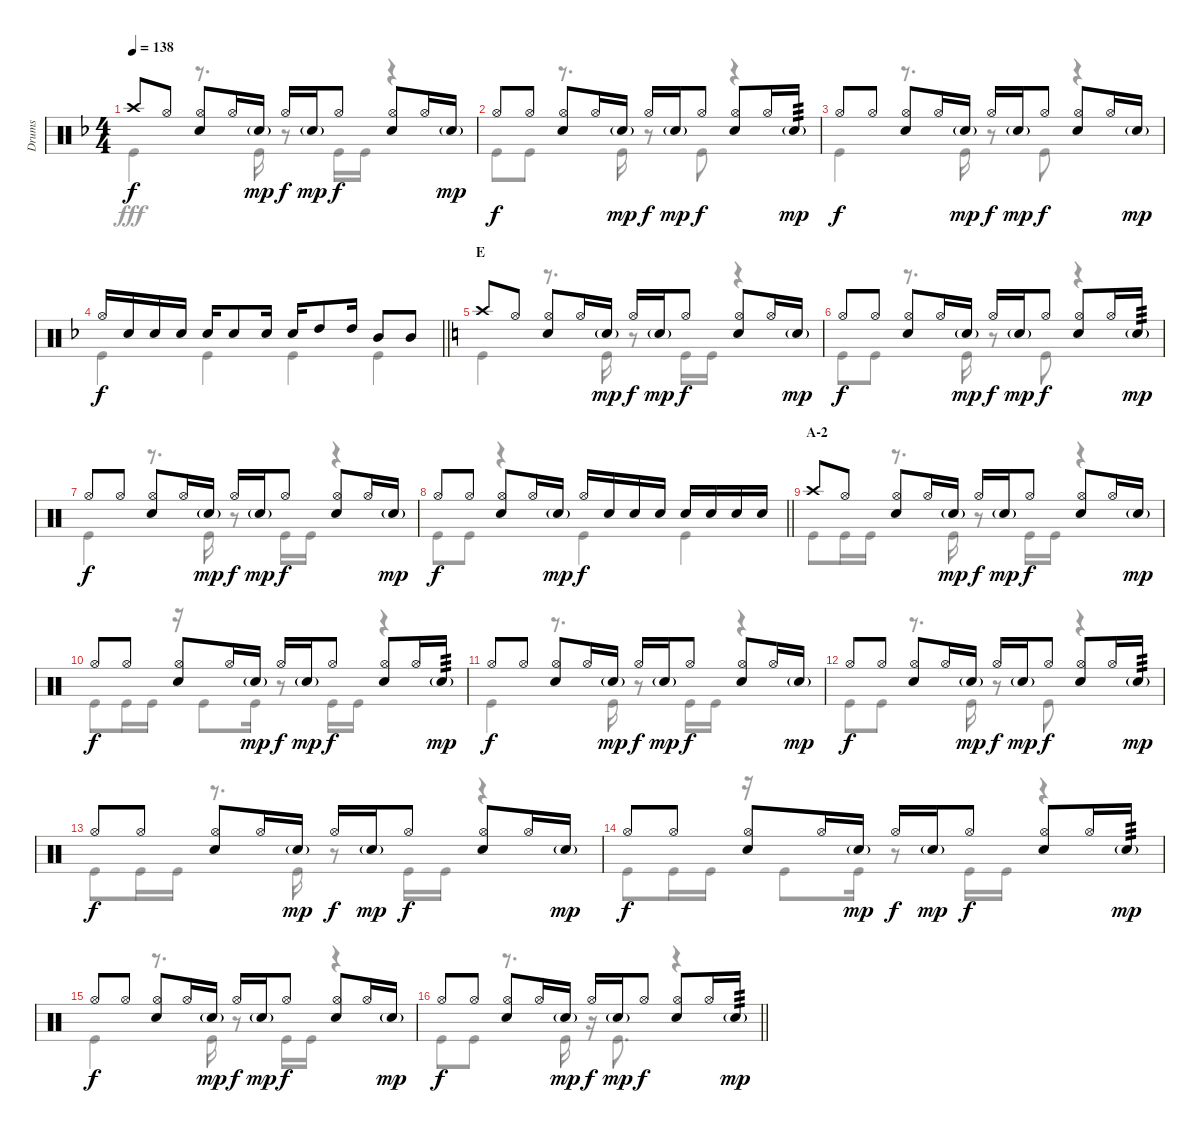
\track ("Drums" "Drums") {instrument percussion}
\staff {score}
\articulation defaults
\voice
\ts (4 4)
\tempo 138
\clef neutral
\ks f "Crash high (hit)".8{dy f} "Hi-Hat (open)".8
("Hi-Hat (open)" "Snare (hit) 2").8 "Hi-Hat (open)".16 "Snare (hit) 2"{g}.16{dy mp} "Hi-Hat (open)".16{dy f} "Snare (hit) 2"{g}.16{dy mp} "Hi-Hat (open)".8{dy f} ("Hi-Hat (open)" "Snare (hit) 2").8 "Hi-Hat (open)".16 "Snare (hit) 2"{g}.16{dy mp} |
"Hi-Hat (open)".8{dy f} "Hi-Hat (open)".8 ("Hi-Hat (open)" "Snare (hit) 2").8 "Hi-Hat (open)".16 "Snare (hit) 2"{g}.16{dy mp} "Hi-Hat (open)".16{dy f} "Snare (hit) 2"{g}.16{dy mp} "Hi-Hat (open)".8{dy f} ("Hi-Hat (open)" "Snare (hit) 2").8 "Hi-Hat (open)".16 "Snare (hit) 2"{g}.16{tp 3 dy mp} |
"Hi-Hat (open)".8{dy f} "Hi-Hat (open)".8 ("Hi-Hat (open)" "Snare (hit) 2").8 "Hi-Hat (open)".16 "Snare (hit) 2"{g}.16{dy mp} "Hi-Hat (open)".16{dy f} "Snare (hit) 2"{g}.16{dy mp} "Hi-Hat (open)".8{dy f} ("Hi-Hat (open)" "Snare (hit) 2").8 "Hi-Hat (open)".16 "Snare (hit) 2"{g}.16{dy mp} |
\barLineRight lightlight "Hi-Hat (open)".16{dy f} "Snare (hit) 2".16 "Snare (hit) 2".16 "Snare (hit) 2".16 "Snare (hit) 2".16 "Snare (hit) 2".8 "Snare (hit) 2".16 "Snare (hit) 2".16 "High Tom (hit)".8 "High Tom (hit)".16 "Mid Tom (hit)".8 "Mid Tom (hit)".8
|
\section ("" "E")
\ks c "Crash high (hit)".8 "Hi-Hat (open)".8
("Hi-Hat (open)" "Snare (hit) 2").8 "Hi-Hat (open)".16 "Snare (hit) 2"{g}.16{dy mp} "Hi-Hat (open)".16{dy f} "Snare (hit) 2"{g}.16{dy mp} "Hi-Hat (open)".8{dy f} ("Hi-Hat (open)" "Snare (hit) 2").8 "Hi-Hat (open)".16 "Snare (hit) 2"{g}.16{dy mp} |
"Hi-Hat (open)".8{dy f} "Hi-Hat (open)".8 ("Hi-Hat (open)" "Snare (hit) 2").8 "Hi-Hat (open)".16 "Snare (hit) 2"{g}.16{dy mp} "Hi-Hat (open)".16{dy f} "Snare (hit) 2"{g}.16{dy mp} "Hi-Hat (open)".8{dy f} ("Hi-Hat (open)" "Snare (hit) 2").8 "Hi-Hat (open)".16 "Snare (hit) 2"{g}.16{tp 3 dy mp} |
"Hi-Hat (open)".8{dy f} "Hi-Hat (open)".8 ("Hi-Hat (open)" "Snare (hit) 2").8 "Hi-Hat (open)".16 "Snare (hit) 2"{g}.16{dy mp} "Hi-Hat (open)".16{dy f} "Snare (hit) 2"{g}.16{dy mp} "Hi-Hat (open)".8{dy f} ("Hi-Hat (open)" "Snare (hit) 2").8 "Hi-Hat (open)".16 "Snare (hit) 2"{g}.16{dy mp} |
\barLineRight lightlight "Hi-Hat (open)".8{dy f} "Hi-Hat (open)".8
("Hi-Hat (open)" "Snare (hit) 2").8 "Hi-Hat (open)".16 "Snare (hit) 2"{g}.16{dy mp} "Hi-Hat (open)".16{dy f} "Snare (hit) 2".16 "Snare (hit) 2".16 "Snare (hit) 2".16 "Snare (hit) 2".16 "Snare (hit) 2".16 "Snare (hit) 2".16 "Snare (hit) 2".16 |
\section ("" "A-2")
"Crash high (hit)".8 "Hi-Hat (open)".8 ("Hi-Hat (open)" "Snare (hit) 2").8 "Hi-Hat (open)".16 "Snare (hit) 2"{g}.16{dy mp} "Hi-Hat (open)".16{dy f} "Snare (hit) 2"{g}.16{dy mp} "Hi-Hat (open)".8{dy f} ("Hi-Hat (open)" "Snare (hit) 2").8 "Hi-Hat (open)".16 "Snare (hit) 2"{g}.16{dy mp} |
"Hi-Hat (open)".8{dy f} "Hi-Hat (open)".8 ("Hi-Hat (open)" "Snare (hit) 2").8 "Hi-Hat (open)".16 "Snare (hit) 2"{g}.16{dy mp} "Hi-Hat (open)".16{dy f} "Snare (hit) 2"{g}.16{dy mp} "Hi-Hat (open)".8{dy f} ("Hi-Hat (open)" "Snare (hit) 2").8 "Hi-Hat (open)".16 "Snare (hit) 2"{g}.16{tp 3 dy mp} |
"Hi-Hat (open)".8{dy f} "Hi-Hat (open)".8 ("Hi-Hat (open)" "Snare (hit) 2").8 "Hi-Hat (open)".16 "Snare (hit) 2"{g}.16{dy mp} "Hi-Hat (open)".16{dy f} "Snare (hit) 2"{g}.16{dy mp} "Hi-Hat (open)".8{dy f} ("Hi-Hat (open)" "Snare (hit) 2").8 "Hi-Hat (open)".16 "Snare (hit) 2"{g}.16{dy mp} |
"Hi-Hat (open)".8{dy f} "Hi-Hat (open)".8 ("Hi-Hat (open)" "Snare (hit) 2").8 "Hi-Hat (open)".16 "Snare (hit) 2"{g}.16{dy mp} "Hi-Hat (open)".16{dy f} "Snare (hit) 2"{g}.16{dy mp} "Hi-Hat (open)".8{dy f} ("Hi-Hat (open)" "Snare (hit) 2").8 "Hi-Hat (open)".16 "Snare (hit) 2"{g}.16{tp 3 dy mp} |
"Hi-Hat (open)".8{dy f} "Hi-Hat (open)".8 ("Hi-Hat (open)" "Snare (hit) 2").8 "Hi-Hat (open)".16 "Snare (hit) 2"{g}.16{dy mp} "Hi-Hat (open)".16{dy f} "Snare (hit) 2"{g}.16{dy mp} "Hi-Hat (open)".8{dy f} ("Hi-Hat (open)" "Snare (hit) 2").8 "Hi-Hat (open)".16 "Snare (hit) 2"{g}.16{dy mp} |
"Hi-Hat (open)".8{dy f} "Hi-Hat (open)".8 ("Hi-Hat (open)" "Snare (hit) 2").8 "Hi-Hat (open)".16 "Snare (hit) 2"{g}.16{dy mp} "Hi-Hat (open)".16{dy f} "Snare (hit) 2"{g}.16{dy mp} "Hi-Hat (open)".8{dy f} ("Hi-Hat (open)" "Snare (hit) 2").8 "Hi-Hat (open)".16 "Snare (hit) 2"{g}.16{tp 3 dy mp} |
"Hi-Hat (open)".8{dy f} "Hi-Hat (open)".8 ("Hi-Hat (open)" "Snare (hit) 2").8 "Hi-Hat (open)".16 "Snare (hit) 2"{g}.16{dy mp} "Hi-Hat (open)".16{dy f} "Snare (hit) 2"{g}.16{dy mp} "Hi-Hat (open)".8{dy f} ("Hi-Hat (open)" "Snare (hit) 2").8 "Hi-Hat (open)".16 "Snare (hit) 2"{g}.16{dy mp} |
\barLineRight lightlight "Hi-Hat (open)".8{dy f} "Hi-Hat (open)".8
("Hi-Hat (open)" "Snare (hit) 2").8 "Hi-Hat (open)".16 "Snare (hit) 2"{g}.16{dy mp} "Hi-Hat (open)".16{dy f} "Snare (hit) 2"{g}.16{dy mp} "Hi-Hat (open)".8{dy f} ("Hi-Hat (open)" "Snare (hit) 2").8 "Hi-Hat (open)".16 "Snare (hit) 2"{g}.16{tp 3 dy mp}
\voice
\clef neutral
\ottava regular
\simile none
\ks f "Kick (hit)".4{dy fff}
r.8{d} "Kick (hit)".16 r.8 "Kick (hit)".16 "Kick (hit)".16 r.4 |
"Kick (hit)".8 "Kick (hit)".8 r.8{d} "Kick (hit)".16 r.8 "Kick (hit)".8 r.4 |
"Kick (hit)".4 r.8{d} "Kick (hit)".16 r.8 "Kick (hit)".8 r.4 |
\barLineRight lightlight "Kick (hit)".4 "Kick (hit)".4 "Kick (hit)".4 "Kick (hit)".4
|
\ks c "Kick (hit)".4
r.8{d} "Kick (hit)".16 r.8 "Kick (hit)".16 "Kick (hit)".16 r.4 |
"Kick (hit)".8 "Kick (hit)".8 r.8{d} "Kick (hit)".16 r.8 "Kick (hit)".8 r.4 |
"Kick (hit)".4 r.8{d} "Kick (hit)".16 r.8 "Kick (hit)".16 "Kick (hit)".16 r.4 |
\barLineRight lightlight "Kick (hit)".8 "Kick (hit)".8
r.4 "Kick (hit)".4 "Kick (hit)".4 |
"Kick (hit)".8 "Kick (hit)".16 "Kick (hit)".16 r.8{d} "Kick (hit)".16 r.8 "Kick (hit)".16 "Kick (hit)".16 r.4 |
"Kick (hit)".8 "Kick (hit)".16 "Kick (hit)".16 r.16 "Kick (hit)".8 "Kick (hit)".16 r.8 "Kick (hit)".16 "Kick (hit)".16 r.4 |
"Kick (hit)".4 r.8{d} "Kick (hit)".16 r.8 "Kick (hit)".16 "Kick (hit)".16 r.4 |
"Kick (hit)".8 "Kick (hit)".8 r.8{d} "Kick (hit)".16 r.8 "Kick (hit)".8 r.4 |
"Kick (hit)".8 "Kick (hit)".16 "Kick (hit)".16 r.8{d} "Kick (hit)".16 r.8 "Kick (hit)".16 "Kick (hit)".16 r.4 |
"Kick (hit)".8 "Kick (hit)".16 "Kick (hit)".16 r.16 "Kick (hit)".8 "Kick (hit)".16 r.8 "Kick (hit)".16 "Kick (hit)".16 r.4 |
"Kick (hit)".4 r.8{d} "Kick (hit)".16 r.8 "Kick (hit)".16 "Kick (hit)".16 r.4 |
\barLineRight lightlight "Kick (hit)".8 "Kick (hit)".8
r.8{d} "Kick (hit)".16 r.16 "Kick (hit)".8{d} r.4
